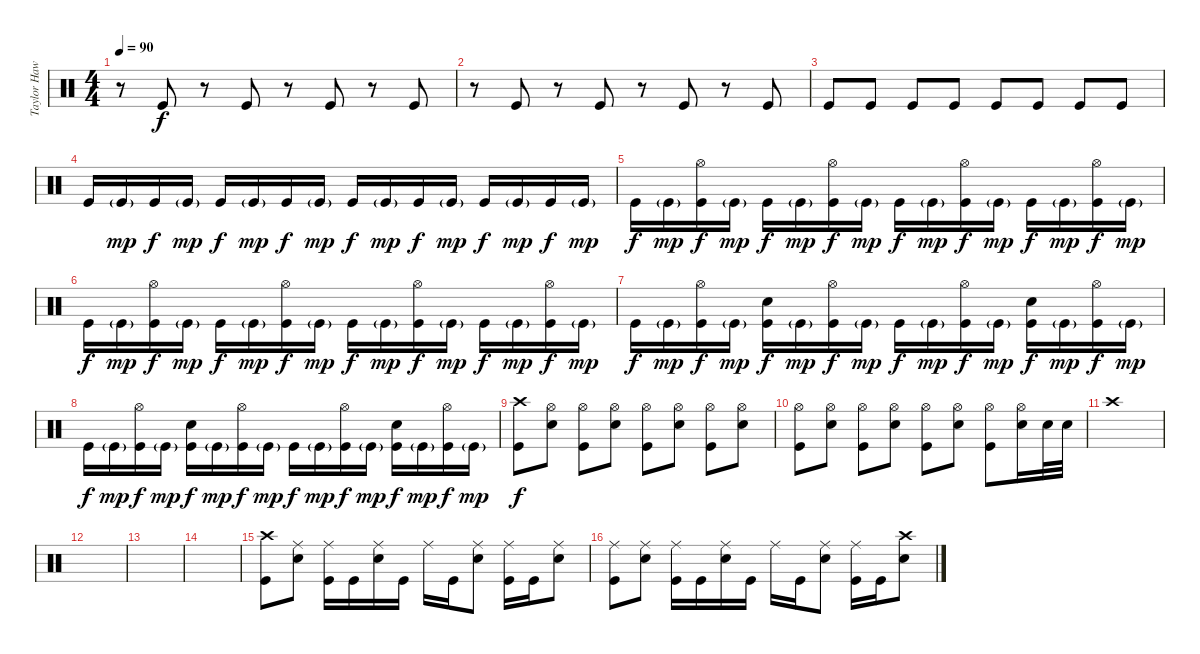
\track ("Taylor Hawkins - Drums" "Taylor Haw") {instrument percussion}
\staff {score}
\articulation defaults
\ts (4 4)
\tempo 90
\clef neutral
\ks c
r.8{dy f} "Kick (hit)".8 r.8 "Kick (hit)".8 r.8 "Kick (hit)".8 r.8 "Kick (hit)".8 |
r.8 "Kick (hit)".8 r.8 "Kick (hit)".8 r.8 "Kick (hit)".8 r.8 "Kick (hit)".8 |
"Kick (hit)".8 "Kick (hit)".8 "Kick (hit)".8 "Kick (hit)".8 "Kick (hit)".8 "Kick (hit)".8 "Kick (hit)".8 "Kick (hit)".8 |
"Kick (hit)".16 "Kick (hit)"{g}.16{dy mp} "Kick (hit)".16{dy f} "Kick (hit)"{g}.16{dy mp} "Kick (hit)".16{dy f} "Kick (hit)"{g}.16{dy mp} "Kick (hit)".16{dy f} "Kick (hit)"{g}.16{dy mp} "Kick (hit)".16{dy f} "Kick (hit)"{g}.16{dy mp} "Kick (hit)".16{dy f} "Kick (hit)"{g}.16{dy mp} "Kick (hit)".16{dy f} "Kick (hit)"{g}.16{dy mp} "Kick (hit)".16{dy f} "Kick (hit)"{g}.16{dy mp} |
"Kick (hit)".16{dy f} "Kick (hit)"{g}.16{dy mp} ("Hi-Hat (open)" "Kick (hit)").16{dy f} "Kick (hit)"{g}.16{dy mp} "Kick (hit)".16{dy f} "Kick (hit)"{g}.16{dy mp} ("Hi-Hat (open)" "Kick (hit)").16{dy f} "Kick (hit)"{g}.16{dy mp} "Kick (hit)".16{dy f} "Kick (hit)"{g}.16{dy mp} ("Hi-Hat (open)" "Kick (hit)").16{dy f} "Kick (hit)"{g}.16{dy mp} "Kick (hit)".16{dy f} "Kick (hit)"{g}.16{dy mp} ("Hi-Hat (open)" "Kick (hit)").16{dy f} "Kick (hit)"{g}.16{dy mp} |
"Kick (hit)".16{dy f} "Kick (hit)"{g}.16{dy mp} ("Hi-Hat (open)" "Kick (hit)").16{dy f} "Kick (hit)"{g}.16{dy mp} "Kick (hit)".16{dy f} "Kick (hit)"{g}.16{dy mp} ("Hi-Hat (open)" "Kick (hit)").16{dy f} "Kick (hit)"{g}.16{dy mp} "Kick (hit)".16{dy f} "Kick (hit)"{g}.16{dy mp} ("Hi-Hat (open)" "Kick (hit)").16{dy f} "Kick (hit)"{g}.16{dy mp} "Kick (hit)".16{dy f} "Kick (hit)"{g}.16{dy mp} ("Hi-Hat (open)" "Kick (hit)").16{dy f} "Kick (hit)"{g}.16{dy mp} |
"Kick (hit)".16{dy f} "Kick (hit)"{g}.16{dy mp} ("Hi-Hat (open)" "Kick (hit)").16{dy f} "Kick (hit)"{g}.16{dy mp} ("Electric Snare (hit)" "Kick (hit)").16{dy f} "Kick (hit)"{g}.16{dy mp} ("Hi-Hat (open)" "Kick (hit)").16{dy f} "Kick (hit)"{g}.16{dy mp} "Kick (hit)".16{dy f} "Kick (hit)"{g}.16{dy mp} ("Hi-Hat (open)" "Kick (hit)").16{dy f} "Kick (hit)"{g}.16{dy mp} ("Electric Snare (hit)" "Kick (hit)").16{dy f} "Kick (hit)"{g}.16{dy mp} ("Hi-Hat (open)" "Kick (hit)").16{dy f} "Kick (hit)"{g}.16{dy mp} |
"Kick (hit)".16{dy f} "Kick (hit)"{g}.16{dy mp} ("Hi-Hat (open)" "Kick (hit)").16{dy f} "Kick (hit)"{g}.16{dy mp} ("Electric Snare (hit)" "Kick (hit)").16{dy f} "Kick (hit)"{g}.16{dy mp} ("Hi-Hat (open)" "Kick (hit)").16{dy f} "Kick (hit)"{g}.16{dy mp} "Kick (hit)".16{dy f} "Kick (hit)"{g}.16{dy mp} ("Hi-Hat (open)" "Kick (hit)").16{dy f} "Kick (hit)"{g}.16{dy mp} ("Electric Snare (hit)" "Kick (hit)").16{dy f} "Kick (hit)"{g}.16{dy mp} ("Hi-Hat (open)" "Kick (hit)").16{dy f} "Kick (hit)"{g}.16{dy mp} |
("Crash high (hit)" "Kick (hit)").8{dy f} ("Hi-Hat (open)" "Snare (hit) 2").8 ("Hi-Hat (open)" "Kick (hit)").8 ("Hi-Hat (open)" "Snare (hit) 2").8 ("Hi-Hat (open)" "Kick (hit)").8 ("Hi-Hat (open)" "Snare (hit) 2").8 ("Hi-Hat (open)" "Kick (hit)").8 ("Hi-Hat (open)" "Snare (hit) 2").8 |
("Hi-Hat (open)" "Kick (hit)").8 ("Hi-Hat (open)" "Snare (hit) 2").8 ("Hi-Hat (open)" "Kick (hit)").8 ("Hi-Hat (open)" "Snare (hit) 2").8 ("Hi-Hat (open)" "Kick (hit)").8 ("Hi-Hat (open)" "Snare (hit) 2").8 ("Hi-Hat (open)" "Kick (hit)").8 ("Hi-Hat (open)" "Snare (hit) 2").16 "Snare (hit) 2".32 "Snare (hit) 2".32 |
"Crash high (hit)".1 |
|
|
|
("Crash high (hit)" "Kick (hit)").8 ("Ride (middle)" "Electric Snare (hit)").8 ("Ride (middle)" "Kick (hit)").16 "Kick (hit)".16 ("Ride (middle)" "Electric Snare (hit)").16 "Kick (hit)".16 "Ride (middle)".16 "Kick (hit)".16 ("Ride (middle)" "Electric Snare (hit)").8 ("Ride (middle)" "Kick (hit)").16 "Kick (hit)".16 ("Ride (middle)" "Snare (hit) 2").8 |
("Ride (middle)" "Kick (hit)").8 ("Ride (middle)" "Electric Snare (hit)").8 ("Ride (middle)" "Kick (hit)").16 "Kick (hit)".16 ("Ride (middle)" "Electric Snare (hit)").16 "Kick (hit)".16 "Ride (middle)".16 "Kick (hit)".16 ("Ride (middle)" "Electric Snare (hit)").8 ("Ride (middle)" "Kick (hit)").16 "Kick (hit)".16 ("Crash high (hit)" "Snare (hit) 2").8
